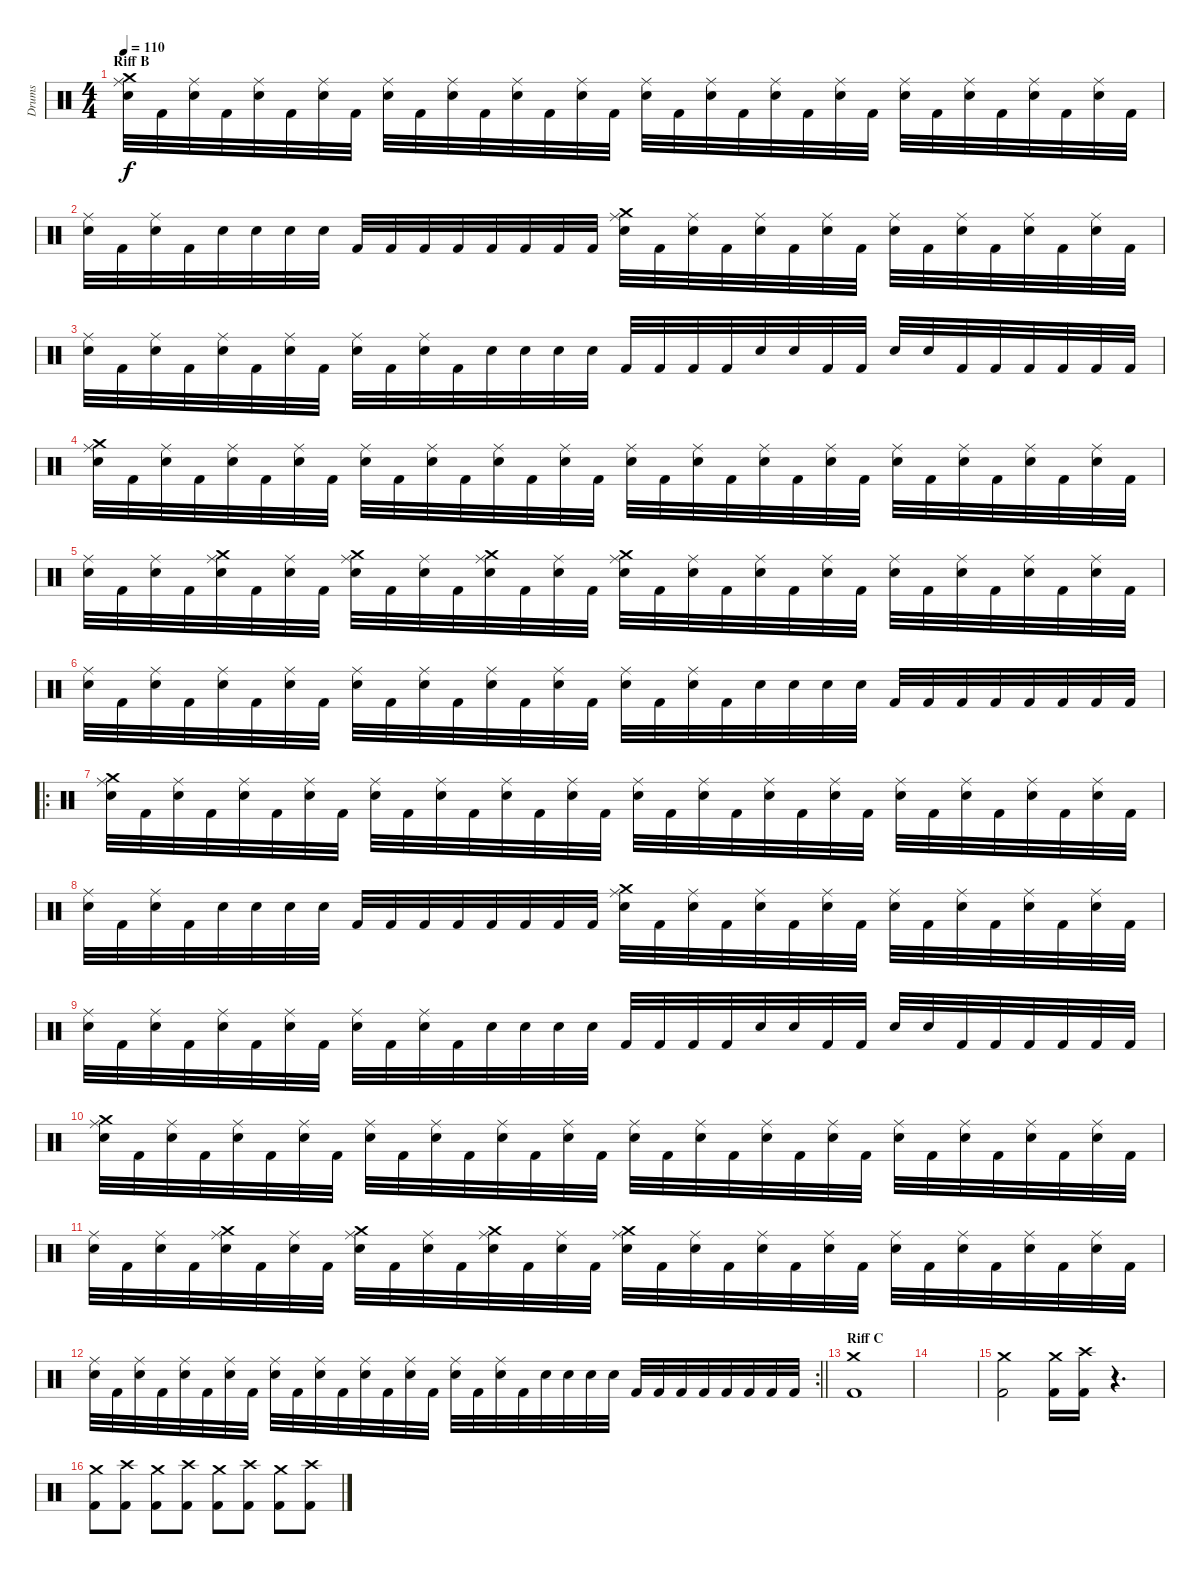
\track ("Drums" "Drums") {instrument percussion}
\staff {score}
\articulation defaults
\ts (4 4)
\section ("" "Riff B")
\tempo 110
\clef neutral
\ks c
("Crash medium (hit)" "Ride (middle)" "Electric Snare (hit)").32{dy f} "Kick (hit) 2".32 ("Ride (middle)" "Electric Snare (hit)").32 "Kick (hit) 2".32 ("Ride (middle)" "Electric Snare (hit)").32 "Kick (hit) 2".32 ("Ride (middle)" "Electric Snare (hit)").32 "Kick (hit) 2".32 ("Ride (middle)" "Electric Snare (hit)").32 "Kick (hit) 2".32 ("Ride (middle)" "Electric Snare (hit)").32 "Kick (hit) 2".32 ("Ride (middle)" "Electric Snare (hit)").32 "Kick (hit) 2".32 ("Ride (middle)" "Electric Snare (hit)").32 "Kick (hit) 2".32 ("Ride (middle)" "Electric Snare (hit)").32 "Kick (hit) 2".32 ("Ride (middle)" "Electric Snare (hit)").32 "Kick (hit) 2".32 ("Ride (middle)" "Electric Snare (hit)").32 "Kick (hit) 2".32 ("Ride (middle)" "Electric Snare (hit)").32 "Kick (hit) 2".32 ("Ride (middle)" "Electric Snare (hit)").32 "Kick (hit) 2".32 ("Ride (middle)" "Electric Snare (hit)").32 "Kick (hit) 2".32 ("Ride (middle)" "Electric Snare (hit)").32 "Kick (hit) 2".32 ("Ride (middle)" "Electric Snare (hit)").32 "Kick (hit) 2".32 |
("Ride (middle)" "Electric Snare (hit)").32 "Kick (hit) 2".32 ("Ride (middle)" "Electric Snare (hit)").32 "Kick (hit) 2".32 "Electric Snare (hit)".32 "Electric Snare (hit)".32 "Electric Snare (hit)".32 "Electric Snare (hit)".32 "Kick (hit) 2".32 "Kick (hit) 2".32 "Kick (hit) 2".32 "Kick (hit) 2".32 "Kick (hit) 2".32 "Kick (hit) 2".32 "Kick (hit) 2".32 "Kick (hit) 2".32 ("Crash medium (hit)" "Ride (middle)" "Electric Snare (hit)").32 "Kick (hit) 2".32 ("Ride (middle)" "Electric Snare (hit)").32 "Kick (hit) 2".32 ("Ride (middle)" "Electric Snare (hit)").32 "Kick (hit) 2".32 ("Ride (middle)" "Electric Snare (hit)").32 "Kick (hit) 2".32 ("Ride (middle)" "Electric Snare (hit)").32 "Kick (hit) 2".32 ("Ride (middle)" "Electric Snare (hit)").32 "Kick (hit) 2".32 ("Ride (middle)" "Electric Snare (hit)").32 "Kick (hit) 2".32 ("Ride (middle)" "Electric Snare (hit)").32 "Kick (hit) 2".32 |
("Ride (middle)" "Electric Snare (hit)").32 "Kick (hit) 2".32 ("Ride (middle)" "Electric Snare (hit)").32 "Kick (hit) 2".32 ("Ride (middle)" "Electric Snare (hit)").32 "Kick (hit) 2".32 ("Ride (middle)" "Electric Snare (hit)").32 "Kick (hit) 2".32 ("Ride (middle)" "Electric Snare (hit)").32 "Kick (hit) 2".32 ("Ride (middle)" "Electric Snare (hit)").32 "Kick (hit) 2".32 "Electric Snare (hit)".32 "Electric Snare (hit)".32 "Electric Snare (hit)".32 "Electric Snare (hit)".32 "Kick (hit) 2".32 "Kick (hit) 2".32 "Kick (hit) 2".32 "Kick (hit) 2".32 "Electric Snare (hit)".32 "Electric Snare (hit)".32 "Kick (hit) 2".32 "Kick (hit) 2".32 "Electric Snare (hit)".32 "Electric Snare (hit)".32 "Kick (hit) 2".32 "Kick (hit) 2".32 "Kick (hit) 2".32 "Kick (hit) 2".32 "Kick (hit) 2".32 "Kick (hit) 2".32 |
("Crash medium (hit)" "Ride (middle)" "Electric Snare (hit)").32 "Kick (hit) 2".32 ("Ride (middle)" "Electric Snare (hit)").32 "Kick (hit) 2".32 ("Ride (middle)" "Electric Snare (hit)").32 "Kick (hit) 2".32 ("Ride (middle)" "Electric Snare (hit)").32 "Kick (hit) 2".32 ("Ride (middle)" "Electric Snare (hit)").32 "Kick (hit) 2".32 ("Ride (middle)" "Electric Snare (hit)").32 "Kick (hit) 2".32 ("Ride (middle)" "Electric Snare (hit)").32 "Kick (hit) 2".32 ("Ride (middle)" "Electric Snare (hit)").32 "Kick (hit) 2".32 ("Ride (middle)" "Electric Snare (hit)").32 "Kick (hit) 2".32 ("Ride (middle)" "Electric Snare (hit)").32 "Kick (hit) 2".32 ("Ride (middle)" "Electric Snare (hit)").32 "Kick (hit) 2".32 ("Ride (middle)" "Electric Snare (hit)").32 "Kick (hit) 2".32 ("Ride (middle)" "Electric Snare (hit)").32 "Kick (hit) 2".32 ("Ride (middle)" "Electric Snare (hit)").32 "Kick (hit) 2".32 ("Ride (middle)" "Electric Snare (hit)").32 "Kick (hit) 2".32 ("Ride (middle)" "Electric Snare (hit)").32 "Kick (hit) 2".32 |
("Ride (middle)" "Electric Snare (hit)").32 "Kick (hit) 2".32 ("Ride (middle)" "Electric Snare (hit)").32 "Kick (hit) 2".32 ("Crash medium (hit)" "Ride (middle)" "Electric Snare (hit)").32 "Kick (hit) 2".32 ("Ride (middle)" "Electric Snare (hit)").32 "Kick (hit) 2".32 ("Crash medium (hit)" "Ride (middle)" "Electric Snare (hit)").32 "Kick (hit) 2".32 ("Ride (middle)" "Electric Snare (hit)").32 "Kick (hit) 2".32 ("Crash medium (hit)" "Ride (middle)" "Electric Snare (hit)").32 "Kick (hit) 2".32 ("Ride (middle)" "Electric Snare (hit)").32 "Kick (hit) 2".32 ("Crash medium (hit)" "Ride (middle)" "Electric Snare (hit)").32 "Kick (hit) 2".32 ("Ride (middle)" "Electric Snare (hit)").32 "Kick (hit) 2".32 ("Ride (middle)" "Electric Snare (hit)").32 "Kick (hit) 2".32 ("Ride (middle)" "Electric Snare (hit)").32 "Kick (hit) 2".32 ("Ride (middle)" "Electric Snare (hit)").32 "Kick (hit) 2".32 ("Ride (middle)" "Electric Snare (hit)").32 "Kick (hit) 2".32 ("Ride (middle)" "Electric Snare (hit)").32 "Kick (hit) 2".32 ("Ride (middle)" "Electric Snare (hit)").32 "Kick (hit) 2".32 |
("Ride (middle)" "Electric Snare (hit)").32 "Kick (hit) 2".32 ("Ride (middle)" "Electric Snare (hit)").32 "Kick (hit) 2".32 ("Ride (middle)" "Electric Snare (hit)").32 "Kick (hit) 2".32 ("Ride (middle)" "Electric Snare (hit)").32 "Kick (hit) 2".32 ("Ride (middle)" "Electric Snare (hit)").32 "Kick (hit) 2".32 ("Ride (middle)" "Electric Snare (hit)").32 "Kick (hit) 2".32 ("Ride (middle)" "Electric Snare (hit)").32 "Kick (hit) 2".32 ("Ride (middle)" "Electric Snare (hit)").32 "Kick (hit) 2".32 ("Ride (middle)" "Electric Snare (hit)").32 "Kick (hit) 2".32 ("Ride (middle)" "Electric Snare (hit)").32 "Kick (hit) 2".32 "Electric Snare (hit)".32 "Electric Snare (hit)".32 "Electric Snare (hit)".32 "Electric Snare (hit)".32 "Kick (hit) 2".32 "Kick (hit) 2".32 "Kick (hit) 2".32 "Kick (hit) 2".32 "Kick (hit) 2".32 "Kick (hit) 2".32 "Kick (hit) 2".32 "Kick (hit) 2".32 |
\ro
("Crash medium (hit)" "Ride (middle)" "Electric Snare (hit)").32 "Kick (hit) 2".32 ("Ride (middle)" "Electric Snare (hit)").32 "Kick (hit) 2".32 ("Ride (middle)" "Electric Snare (hit)").32 "Kick (hit) 2".32 ("Ride (middle)" "Electric Snare (hit)").32 "Kick (hit) 2".32 ("Ride (middle)" "Electric Snare (hit)").32 "Kick (hit) 2".32 ("Ride (middle)" "Electric Snare (hit)").32 "Kick (hit) 2".32 ("Ride (middle)" "Electric Snare (hit)").32 "Kick (hit) 2".32 ("Ride (middle)" "Electric Snare (hit)").32 "Kick (hit) 2".32 ("Ride (middle)" "Electric Snare (hit)").32 "Kick (hit) 2".32 ("Ride (middle)" "Electric Snare (hit)").32 "Kick (hit) 2".32 ("Ride (middle)" "Electric Snare (hit)").32 "Kick (hit) 2".32 ("Ride (middle)" "Electric Snare (hit)").32 "Kick (hit) 2".32 ("Ride (middle)" "Electric Snare (hit)").32 "Kick (hit) 2".32 ("Ride (middle)" "Electric Snare (hit)").32 "Kick (hit) 2".32 ("Ride (middle)" "Electric Snare (hit)").32 "Kick (hit) 2".32 ("Ride (middle)" "Electric Snare (hit)").32 "Kick (hit) 2".32 |
("Ride (middle)" "Electric Snare (hit)").32 "Kick (hit) 2".32 ("Ride (middle)" "Electric Snare (hit)").32 "Kick (hit) 2".32 "Electric Snare (hit)".32 "Electric Snare (hit)".32 "Electric Snare (hit)".32 "Electric Snare (hit)".32 "Kick (hit) 2".32 "Kick (hit) 2".32 "Kick (hit) 2".32 "Kick (hit) 2".32 "Kick (hit) 2".32 "Kick (hit) 2".32 "Kick (hit) 2".32 "Kick (hit) 2".32 ("Crash medium (hit)" "Ride (middle)" "Electric Snare (hit)").32 "Kick (hit) 2".32 ("Ride (middle)" "Electric Snare (hit)").32 "Kick (hit) 2".32 ("Ride (middle)" "Electric Snare (hit)").32 "Kick (hit) 2".32 ("Ride (middle)" "Electric Snare (hit)").32 "Kick (hit) 2".32 ("Ride (middle)" "Electric Snare (hit)").32 "Kick (hit) 2".32 ("Ride (middle)" "Electric Snare (hit)").32 "Kick (hit) 2".32 ("Ride (middle)" "Electric Snare (hit)").32 "Kick (hit) 2".32 ("Ride (middle)" "Electric Snare (hit)").32 "Kick (hit) 2".32 |
("Ride (middle)" "Electric Snare (hit)").32 "Kick (hit) 2".32 ("Ride (middle)" "Electric Snare (hit)").32 "Kick (hit) 2".32 ("Ride (middle)" "Electric Snare (hit)").32 "Kick (hit) 2".32 ("Ride (middle)" "Electric Snare (hit)").32 "Kick (hit) 2".32 ("Ride (middle)" "Electric Snare (hit)").32 "Kick (hit) 2".32 ("Ride (middle)" "Electric Snare (hit)").32 "Kick (hit) 2".32 "Electric Snare (hit)".32 "Electric Snare (hit)".32 "Electric Snare (hit)".32 "Electric Snare (hit)".32 "Kick (hit) 2".32 "Kick (hit) 2".32 "Kick (hit) 2".32 "Kick (hit) 2".32 "Electric Snare (hit)".32 "Electric Snare (hit)".32 "Kick (hit) 2".32 "Kick (hit) 2".32 "Electric Snare (hit)".32 "Electric Snare (hit)".32 "Kick (hit) 2".32 "Kick (hit) 2".32 "Kick (hit) 2".32 "Kick (hit) 2".32 "Kick (hit) 2".32 "Kick (hit) 2".32 |
("Crash medium (hit)" "Ride (middle)" "Electric Snare (hit)").32 "Kick (hit) 2".32 ("Ride (middle)" "Electric Snare (hit)").32 "Kick (hit) 2".32 ("Ride (middle)" "Electric Snare (hit)").32 "Kick (hit) 2".32 ("Ride (middle)" "Electric Snare (hit)").32 "Kick (hit) 2".32 ("Ride (middle)" "Electric Snare (hit)").32 "Kick (hit) 2".32 ("Ride (middle)" "Electric Snare (hit)").32 "Kick (hit) 2".32 ("Ride (middle)" "Electric Snare (hit)").32 "Kick (hit) 2".32 ("Ride (middle)" "Electric Snare (hit)").32 "Kick (hit) 2".32 ("Ride (middle)" "Electric Snare (hit)").32 "Kick (hit) 2".32 ("Ride (middle)" "Electric Snare (hit)").32 "Kick (hit) 2".32 ("Ride (middle)" "Electric Snare (hit)").32 "Kick (hit) 2".32 ("Ride (middle)" "Electric Snare (hit)").32 "Kick (hit) 2".32 ("Ride (middle)" "Electric Snare (hit)").32 "Kick (hit) 2".32 ("Ride (middle)" "Electric Snare (hit)").32 "Kick (hit) 2".32 ("Ride (middle)" "Electric Snare (hit)").32 "Kick (hit) 2".32 ("Ride (middle)" "Electric Snare (hit)").32 "Kick (hit) 2".32 |
("Ride (middle)" "Electric Snare (hit)").32 "Kick (hit) 2".32 ("Ride (middle)" "Electric Snare (hit)").32 "Kick (hit) 2".32 ("Crash medium (hit)" "Ride (middle)" "Electric Snare (hit)").32 "Kick (hit) 2".32 ("Ride (middle)" "Electric Snare (hit)").32 "Kick (hit) 2".32 ("Crash medium (hit)" "Ride (middle)" "Electric Snare (hit)").32 "Kick (hit) 2".32 ("Ride (middle)" "Electric Snare (hit)").32 "Kick (hit) 2".32 ("Crash medium (hit)" "Ride (middle)" "Electric Snare (hit)").32 "Kick (hit) 2".32 ("Ride (middle)" "Electric Snare (hit)").32 "Kick (hit) 2".32 ("Crash medium (hit)" "Ride (middle)" "Electric Snare (hit)").32 "Kick (hit) 2".32 ("Ride (middle)" "Electric Snare (hit)").32 "Kick (hit) 2".32 ("Ride (middle)" "Electric Snare (hit)").32 "Kick (hit) 2".32 ("Ride (middle)" "Electric Snare (hit)").32 "Kick (hit) 2".32 ("Ride (middle)" "Electric Snare (hit)").32 "Kick (hit) 2".32 ("Ride (middle)" "Electric Snare (hit)").32 "Kick (hit) 2".32 ("Ride (middle)" "Electric Snare (hit)").32 "Kick (hit) 2".32 ("Ride (middle)" "Electric Snare (hit)").32 "Kick (hit) 2".32 |
\rc 2
\barLineRight lightlight
("Ride (middle)" "Electric Snare (hit)").32 "Kick (hit) 2".32 ("Ride (middle)" "Electric Snare (hit)").32 "Kick (hit) 2".32 ("Ride (middle)" "Electric Snare (hit)").32 "Kick (hit) 2".32 ("Ride (middle)" "Electric Snare (hit)").32 "Kick (hit) 2".32 ("Ride (middle)" "Electric Snare (hit)").32 "Kick (hit) 2".32 ("Ride (middle)" "Electric Snare (hit)").32 "Kick (hit) 2".32 ("Ride (middle)" "Electric Snare (hit)").32 "Kick (hit) 2".32 ("Ride (middle)" "Electric Snare (hit)").32 "Kick (hit) 2".32 ("Ride (middle)" "Electric Snare (hit)").32 "Kick (hit) 2".32 ("Ride (middle)" "Electric Snare (hit)").32 "Kick (hit) 2".32 "Electric Snare (hit)".32 "Electric Snare (hit)".32 "Electric Snare (hit)".32 "Electric Snare (hit)".32 "Kick (hit) 2".32 "Kick (hit) 2".32 "Kick (hit) 2".32 "Kick (hit) 2".32 "Kick (hit) 2".32 "Kick (hit) 2".32 "Kick (hit) 2".32 "Kick (hit) 2".32 |
\section ("" "Riff C")
("Crash medium (hit)" "Kick (hit) 2").1 |
|
("Crash medium (hit)" "Kick (hit) 2").2 ("Crash medium (hit)" "Kick (hit) 2").16 ("Crash high (hit)" "Kick (hit) 2").16 r.4{d} |
("Crash medium (hit)" "Kick (hit) 2").8 ("Crash high (hit)" "Kick (hit) 2").8 ("Crash medium (hit)" "Kick (hit) 2").8 ("Crash high (hit)" "Kick (hit) 2").8 ("Crash medium (hit)" "Kick (hit) 2").8 ("Crash high (hit)" "Kick (hit) 2").8 ("Crash medium (hit)" "Kick (hit) 2").8 ("Crash high (hit)" "Kick (hit) 2").8
